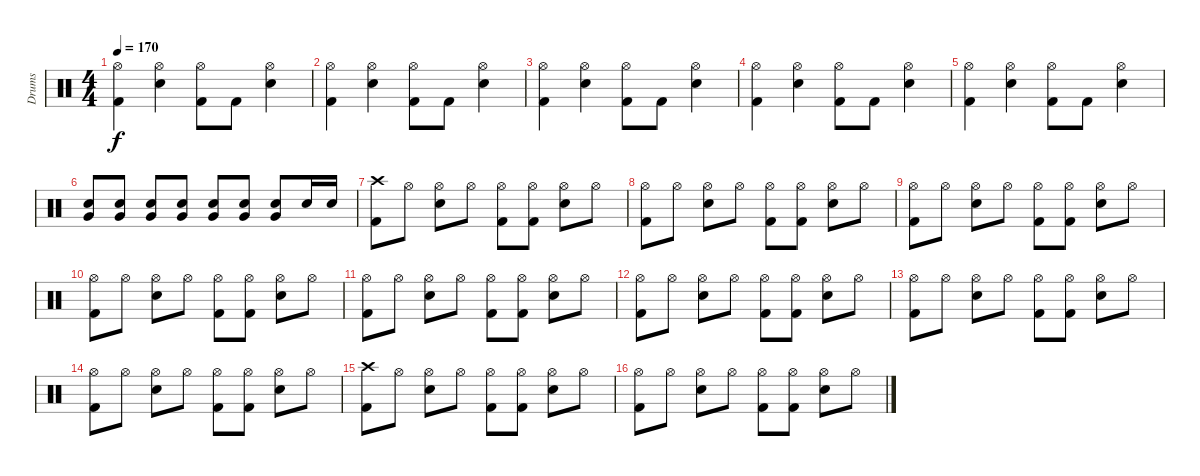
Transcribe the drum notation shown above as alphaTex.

\track ("Drums" "Drums") {instrument percussion}
\staff {score}
\articulation defaults
\ts (4 4)
\tempo 170
\clef neutral
\ks c
("Hi-Hat (open)" "Kick (hit) 2").4{dy f} ("Hi-Hat (open)" "Snare (hit) 2").4 ("Hi-Hat (open)" "Kick (hit) 2").8 "Kick (hit) 2".8 ("Hi-Hat (open)" "Snare (hit) 2").4 |
("Hi-Hat (open)" "Kick (hit) 2").4 ("Hi-Hat (open)" "Snare (hit) 2").4 ("Hi-Hat (open)" "Kick (hit) 2").8 "Kick (hit) 2".8 ("Hi-Hat (open)" "Snare (hit) 2").4 |
("Hi-Hat (open)" "Kick (hit) 2").4 ("Hi-Hat (open)" "Snare (hit) 2").4 ("Hi-Hat (open)" "Kick (hit) 2").8 "Kick (hit) 2".8 ("Hi-Hat (open)" "Snare (hit) 2").4 |
("Hi-Hat (open)" "Kick (hit) 2").4 ("Hi-Hat (open)" "Snare (hit) 2").4 ("Hi-Hat (open)" "Kick (hit) 2").8 "Kick (hit) 2".8 ("Hi-Hat (open)" "Snare (hit) 2").4 |
("Hi-Hat (open)" "Kick (hit) 2").4 ("Hi-Hat (open)" "Snare (hit) 2").4 ("Hi-Hat (open)" "Kick (hit) 2").8 "Kick (hit) 2".8 ("Hi-Hat (open)" "Snare (hit) 2").4 |
("Snare (hit) 2" "Very Low Tom (hit)").8 ("Snare (hit) 2" "Very Low Tom (hit)").8 ("Snare (hit) 2" "Very Low Tom (hit)").8 ("Snare (hit) 2" "Very Low Tom (hit)").8 ("Snare (hit) 2" "Very Low Tom (hit)").8 ("Snare (hit) 2" "Very Low Tom (hit)").8 ("Snare (hit) 2" "Very Low Tom (hit)").8 "Snare (hit) 2".16 "Snare (hit) 2".16 |
("Crash high (hit)" "Kick (hit) 2").8 "Hi-Hat (open)".8 ("Hi-Hat (open)" "Snare (hit) 2").8 "Hi-Hat (open)".8 ("Hi-Hat (open)" "Kick (hit) 2").8 ("Hi-Hat (open)" "Kick (hit) 2").8 ("Hi-Hat (open)" "Snare (hit) 2").8 "Hi-Hat (open)".8 |
("Hi-Hat (open)" "Kick (hit) 2").8 "Hi-Hat (open)".8 ("Hi-Hat (open)" "Snare (hit) 2").8 "Hi-Hat (open)".8 ("Hi-Hat (open)" "Kick (hit) 2").8 ("Hi-Hat (open)" "Kick (hit) 2").8 ("Hi-Hat (open)" "Snare (hit) 2").8 "Hi-Hat (open)".8 |
("Hi-Hat (open)" "Kick (hit) 2").8 "Hi-Hat (open)".8 ("Hi-Hat (open)" "Snare (hit) 2").8 "Hi-Hat (open)".8 ("Hi-Hat (open)" "Kick (hit) 2").8 ("Hi-Hat (open)" "Kick (hit) 2").8 ("Hi-Hat (open)" "Snare (hit) 2").8 "Hi-Hat (open)".8 |
("Hi-Hat (open)" "Kick (hit) 2").8 "Hi-Hat (open)".8 ("Hi-Hat (open)" "Snare (hit) 2").8 "Hi-Hat (open)".8 ("Hi-Hat (open)" "Kick (hit) 2").8 ("Hi-Hat (open)" "Kick (hit) 2").8 ("Hi-Hat (open)" "Snare (hit) 2").8 "Hi-Hat (open)".8 |
("Hi-Hat (open)" "Kick (hit) 2").8 "Hi-Hat (open)".8 ("Hi-Hat (open)" "Snare (hit) 2").8 "Hi-Hat (open)".8 ("Hi-Hat (open)" "Kick (hit) 2").8 ("Hi-Hat (open)" "Kick (hit) 2").8 ("Hi-Hat (open)" "Snare (hit) 2").8 "Hi-Hat (open)".8 |
("Hi-Hat (open)" "Kick (hit) 2").8 "Hi-Hat (open)".8 ("Hi-Hat (open)" "Snare (hit) 2").8 "Hi-Hat (open)".8 ("Hi-Hat (open)" "Kick (hit) 2").8 ("Hi-Hat (open)" "Kick (hit) 2").8 ("Hi-Hat (open)" "Snare (hit) 2").8 "Hi-Hat (open)".8 |
("Hi-Hat (open)" "Kick (hit) 2").8 "Hi-Hat (open)".8 ("Hi-Hat (open)" "Snare (hit) 2").8 "Hi-Hat (open)".8 ("Hi-Hat (open)" "Kick (hit) 2").8 ("Hi-Hat (open)" "Kick (hit) 2").8 ("Hi-Hat (open)" "Snare (hit) 2").8 "Hi-Hat (open)".8 |
("Hi-Hat (open)" "Kick (hit) 2").8 "Hi-Hat (open)".8 ("Hi-Hat (open)" "Snare (hit) 2").8 "Hi-Hat (open)".8 ("Hi-Hat (open)" "Kick (hit) 2").8 ("Hi-Hat (open)" "Kick (hit) 2").8 ("Hi-Hat (open)" "Snare (hit) 2").8 "Hi-Hat (open)".8 |
("Crash high (hit)" "Kick (hit) 2").8 "Hi-Hat (open)".8 ("Hi-Hat (open)" "Snare (hit) 2").8 "Hi-Hat (open)".8 ("Hi-Hat (open)" "Kick (hit) 2").8 ("Hi-Hat (open)" "Kick (hit) 2").8 ("Hi-Hat (open)" "Snare (hit) 2").8 "Hi-Hat (open)".8 |
("Hi-Hat (open)" "Kick (hit) 2").8 "Hi-Hat (open)".8 ("Hi-Hat (open)" "Snare (hit) 2").8 "Hi-Hat (open)".8 ("Hi-Hat (open)" "Kick (hit) 2").8 ("Hi-Hat (open)" "Kick (hit) 2").8 ("Hi-Hat (open)" "Snare (hit) 2").8 "Hi-Hat (open)".8
